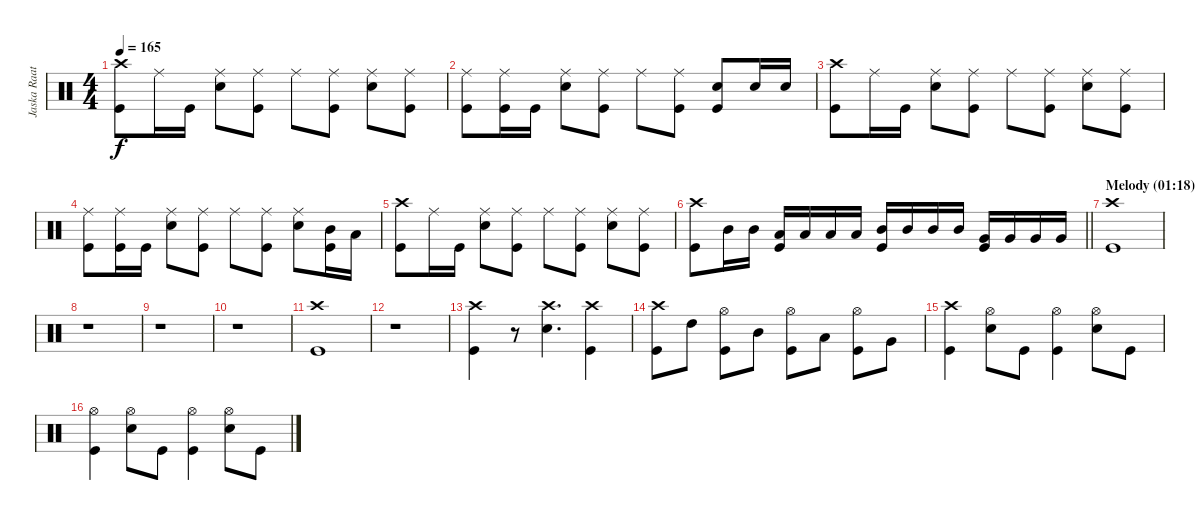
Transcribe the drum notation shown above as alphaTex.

\track ("Jaska Raatikainen" "Jaska Raat") {instrument percussion}
\staff {score}
\articulation defaults
\ts (4 4)
\tempo 165
\clef neutral
\ks c
("Crash high (hit)" "Kick (hit)").8{dy f} "Ride (middle)".16 "Kick (hit)".16 ("Ride (middle)" "Electric Snare (hit)").8 ("Ride (middle)" "Kick (hit)").8 "Ride (middle)".8 ("Ride (middle)" "Kick (hit)").8 ("Ride (middle)" "Electric Snare (hit)").8 ("Ride (middle)" "Kick (hit)").8 |
("Ride (middle)" "Kick (hit)").8 ("Ride (middle)" "Kick (hit)").16 "Kick (hit)".16 ("Ride (middle)" "Electric Snare (hit)").8 ("Ride (middle)" "Kick (hit)").8 "Ride (middle)".8 ("Ride (middle)" "Kick (hit)").8 ("Electric Snare (hit)" "Kick (hit)").8 "Electric Snare (hit)".16 "Electric Snare (hit)".16 |
("Crash high (hit)" "Kick (hit)").8 "Ride (middle)".16 "Kick (hit)".16 ("Ride (middle)" "Electric Snare (hit)").8 ("Ride (middle)" "Kick (hit)").8 "Ride (middle)".8 ("Ride (middle)" "Kick (hit)").8 ("Ride (middle)" "Electric Snare (hit)").8 ("Ride (middle)" "Kick (hit)").8 |
("Ride (middle)" "Kick (hit)").8 ("Ride (middle)" "Kick (hit)").16 "Kick (hit)".16 ("Ride (middle)" "Electric Snare (hit)").8 ("Ride (middle)" "Kick (hit)").8 "Ride (middle)".8 ("Ride (middle)" "Kick (hit)").8 ("Ride (middle)" "Electric Snare (hit)").8 ("Mid Tom (hit)" "Kick (hit)").16 "Low Tom (hit)".16 |
("Crash high (hit)" "Kick (hit)").8 "Ride (middle)".16 "Kick (hit)".16 ("Ride (middle)" "Electric Snare (hit)").8 ("Ride (middle)" "Kick (hit)").8 "Ride (middle)".8 ("Ride (middle)" "Kick (hit)").8 ("Ride (middle)" "Electric Snare (hit)").8 ("Ride (middle)" "Kick (hit)").8 |
\barLineRight lightlight
("Crash high (hit)" "Kick (hit)").8 "Mid Tom (hit)".16 "Mid Tom (hit)".16 ("Low Tom (hit)" "Kick (hit)").16 "Low Tom (hit)".16 "Low Tom (hit)".16 "Low Tom (hit)".16 ("Mid Tom (hit)" "Kick (hit)").16 "Mid Tom (hit)".16 "Mid Tom (hit)".16 "Mid Tom (hit)".16 ("Very Low Tom (hit)" "Kick (hit)").16 "Very Low Tom (hit)".16 "Very Low Tom (hit)".16 "Very Low Tom (hit)".16 |
\section ("" "Melody (01:18)")
("Crash high (hit)" "Kick (hit)").1 |
r.1 |
r.1 |
r.1 |
("Crash high (hit)" "Kick (hit)").1 |
r.1 |
("Crash high (hit)" "Kick (hit)").4 r.8 ("Crash high (hit)" "Electric Snare (hit)").4{d} ("Crash high (hit)" "Kick (hit)").4 |
("Crash high (hit)" "Kick (hit)").8 "High Tom (hit)".8 ("Hi-Hat (open)" "Kick (hit)").8 "Mid Tom (hit)".8 ("Hi-Hat (open)" "Kick (hit)").8 "Low Tom (hit)".8 ("Hi-Hat (open)" "Kick (hit)").8 "Very Low Tom (hit)".8 |
("Crash high (hit)" "Kick (hit)").4 ("Hi-Hat (open)" "Electric Snare (hit)").8 "Kick (hit)".8 ("Hi-Hat (open)" "Kick (hit)").4 ("Hi-Hat (open)" "Electric Snare (hit)").8 "Kick (hit)".8 |
("Hi-Hat (open)" "Kick (hit)").4 ("Hi-Hat (open)" "Electric Snare (hit)").8 "Kick (hit)".8 ("Hi-Hat (open)" "Kick (hit)").4 ("Hi-Hat (open)" "Electric Snare (hit)").8 "Kick (hit)".8
